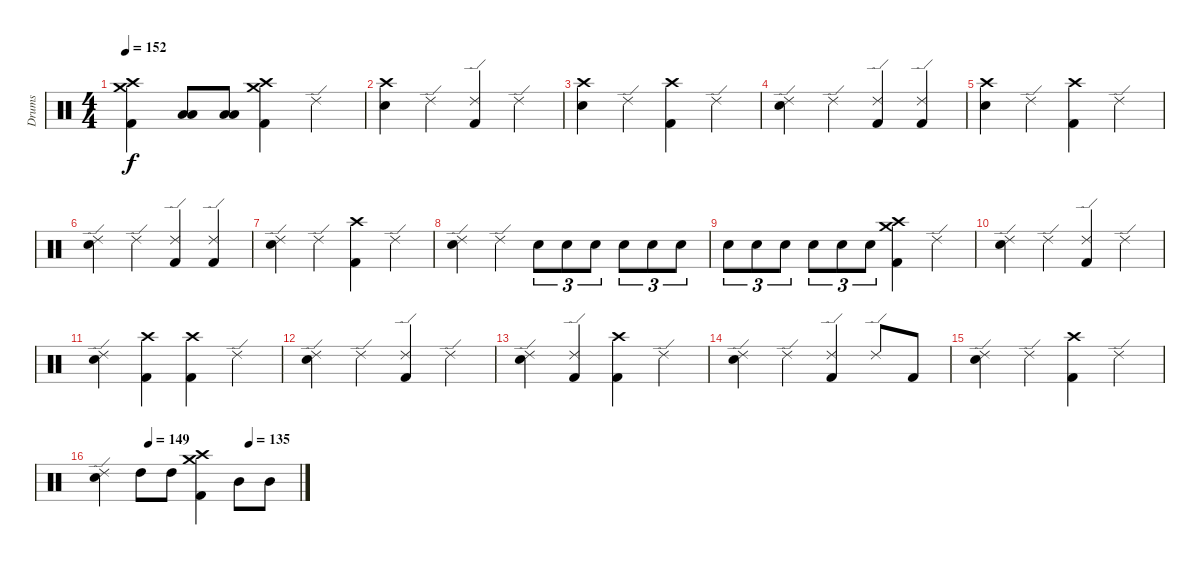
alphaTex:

\track ("Drums" "Drums") {instrument percussion}
\staff {score}
\articulation defaults
\ts (4 4)
\tempo 152
\clef neutral
\ks c
("Kick (hit) 2" "Crash high (hit)" "Crash medium (hit)").4{dy f} ("Low Tom (hit)" "Low Tom (hit)").8 ("Low Tom (hit)" "Low Tom (hit)").8 ("Kick (hit) 2" "Crash high (hit)" "Crash medium (hit)").4 "Ride (edge) 2".4 |
("Electric Snare (hit)" "Crash high (hit)").4 "Ride (edge) 2".4 ("Kick (hit) 2" "Ride (edge) 2").4 "Ride (edge) 2".4 |
("Electric Snare (hit)" "Crash high (hit)").4 "Ride (edge) 2".4 ("Kick (hit) 2" "Crash high (hit)").4 "Ride (edge) 2".4 |
("Electric Snare (hit)" "Ride (edge) 2").4 "Ride (edge) 2".4 ("Kick (hit) 2" "Ride (edge) 2").4 ("Kick (hit) 2" "Ride (edge) 2").4 |
("Electric Snare (hit)" "Crash high (hit)").4 "Ride (edge) 2".4 ("Kick (hit) 2" "Crash high (hit)").4 "Ride (edge) 2".4 |
("Electric Snare (hit)" "Ride (edge) 2").4 "Ride (edge) 2".4 ("Kick (hit) 2" "Ride (edge) 2").4 ("Kick (hit) 2" "Ride (edge) 2").4 |
("Electric Snare (hit)" "Ride (edge) 2").4 "Ride (edge) 2".4 ("Kick (hit) 2" "Crash high (hit)").4 "Ride (edge) 2".4 |
("Electric Snare (hit)" "Ride (edge) 2").4 "Ride (edge) 2".4 "Electric Snare (hit)".8{tu (3 2)} "Electric Snare (hit)".8{tu (3 2)} "Electric Snare (hit)".8{tu (3 2)} "Electric Snare (hit)".8{tu (3 2)} "Electric Snare (hit)".8{tu (3 2)} "Electric Snare (hit)".8{tu (3 2)} |
"Electric Snare (hit)".8{tu (3 2)} "Electric Snare (hit)".8{tu (3 2)} "Electric Snare (hit)".8{tu (3 2)} "Electric Snare (hit)".8{tu (3 2)} "Electric Snare (hit)".8{tu (3 2)} "Electric Snare (hit)".8{tu (3 2)} ("Kick (hit) 2" "Crash high (hit)" "Crash medium (hit)").4 "Ride (edge) 2".4 |
("Electric Snare (hit)" "Ride (edge) 2").4 "Ride (edge) 2".4 ("Kick (hit) 2" "Ride (edge) 2").4 "Ride (edge) 2".4 |
("Electric Snare (hit)" "Ride (edge) 2").4 ("Kick (hit) 2" "Crash high (hit)").4 ("Kick (hit) 2" "Crash high (hit)").4 "Ride (edge) 2".4 |
("Electric Snare (hit)" "Ride (edge) 2").4 "Ride (edge) 2".4 ("Kick (hit) 2" "Ride (edge) 2").4 "Ride (edge) 2".4 |
("Electric Snare (hit)" "Ride (edge) 2").4 ("Kick (hit) 2" "Ride (edge) 2").4 ("Kick (hit) 2" "Crash high (hit)").4 "Ride (edge) 2".4 |
("Electric Snare (hit)" "Ride (edge) 2").4 "Ride (edge) 2".4 ("Kick (hit) 2" "Ride (edge) 2").4 "Ride (edge) 2".8 "Kick (hit) 2".8 |
("Electric Snare (hit)" "Ride (edge) 2").4 "Ride (edge) 2".4 ("Kick (hit) 2" "Crash high (hit)").4 "Ride (edge) 2".4 |
\tempo (149 0.25)
\tempo (135 0.75)
("Electric Snare (hit)" "Ride (edge) 2").4 "High Tom (hit)".8 "High Tom (hit)".8 ("Kick (hit) 2" "Crash high (hit)" "Crash medium (hit)").4 "Mid Tom (hit)".8 "Mid Tom (hit)".8
